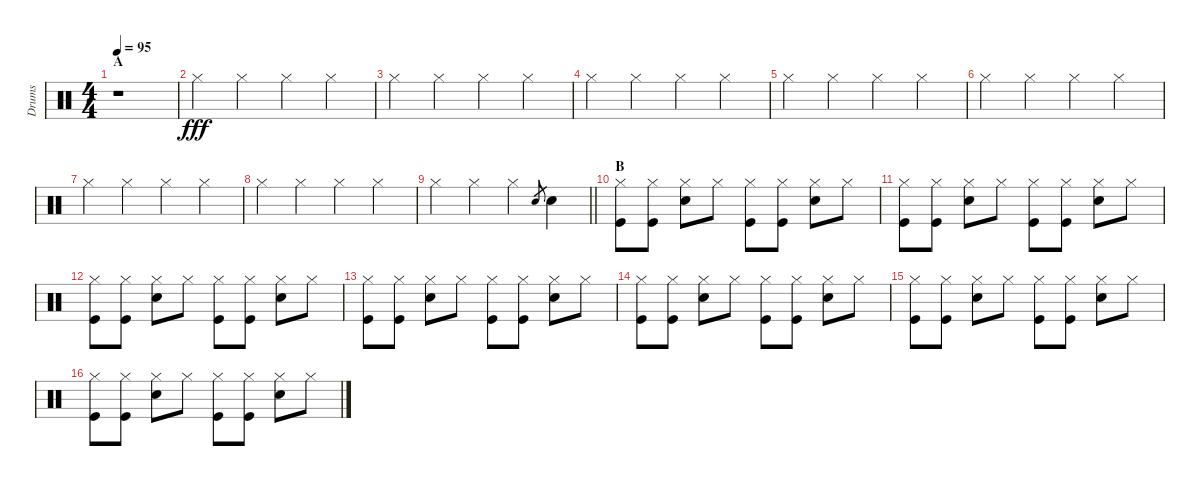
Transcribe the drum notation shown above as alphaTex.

\track ("Drums" "Drums") {instrument percussion}
\staff {score}
\articulation defaults
\ts (4 4)
\section ("" "A")
\tempo 95
\tempo 190
\tempo 95
\clef neutral
\ks c
r.1{dy fff} |
"Hi-Hat (closed)".4 "Hi-Hat (closed)".4 "Hi-Hat (closed)".4 "Hi-Hat (closed)".4 |
"Hi-Hat (closed)".4 "Hi-Hat (closed)".4 "Hi-Hat (closed)".4 "Hi-Hat (closed)".4 |
"Hi-Hat (closed)".4 "Hi-Hat (closed)".4 "Hi-Hat (closed)".4 "Hi-Hat (closed)".4 |
"Hi-Hat (closed)".4 "Hi-Hat (closed)".4 "Hi-Hat (closed)".4 "Hi-Hat (closed)".4 |
"Hi-Hat (closed)".4 "Hi-Hat (closed)".4 "Hi-Hat (closed)".4 "Hi-Hat (closed)".4 |
"Hi-Hat (closed)".4 "Hi-Hat (closed)".4 "Hi-Hat (closed)".4 "Hi-Hat (closed)".4 |
"Hi-Hat (closed)".4 "Hi-Hat (closed)".4 "Hi-Hat (closed)".4 "Hi-Hat (closed)".4 |
\barLineRight lightlight "Hi-Hat (closed)".4 "Hi-Hat (closed)".4 "Hi-Hat (closed)".4 "Snare (hit) 2".8{gr} "Snare (hit) 2".4
|
\section ("" "B")
("Hi-Hat (closed)" "Kick (hit)").8 ("Hi-Hat (closed)" "Kick (hit)").8 ("Hi-Hat (closed)" "Snare (hit) 2").8 "Hi-Hat (closed)".8 ("Hi-Hat (closed)" "Kick (hit)").8 ("Hi-Hat (closed)" "Kick (hit)").8 ("Hi-Hat (closed)" "Snare (hit) 2").8 "Hi-Hat (closed)".8 |
("Hi-Hat (closed)" "Kick (hit)").8 ("Hi-Hat (closed)" "Kick (hit)").8 ("Hi-Hat (closed)" "Snare (hit) 2").8 "Hi-Hat (closed)".8 ("Hi-Hat (closed)" "Kick (hit)").8 ("Hi-Hat (closed)" "Kick (hit)").8 ("Hi-Hat (closed)" "Snare (hit) 2").8 "Hi-Hat (closed)".8 |
("Hi-Hat (closed)" "Kick (hit)").8 ("Hi-Hat (closed)" "Kick (hit)").8 ("Hi-Hat (closed)" "Snare (hit) 2").8 "Hi-Hat (closed)".8 ("Hi-Hat (closed)" "Kick (hit)").8 ("Hi-Hat (closed)" "Kick (hit)").8 ("Hi-Hat (closed)" "Snare (hit) 2").8 "Hi-Hat (closed)".8 |
("Hi-Hat (closed)" "Kick (hit)").8 ("Hi-Hat (closed)" "Kick (hit)").8 ("Hi-Hat (closed)" "Snare (hit) 2").8 "Hi-Hat (closed)".8 ("Hi-Hat (closed)" "Kick (hit)").8 ("Hi-Hat (closed)" "Kick (hit)").8 ("Hi-Hat (closed)" "Snare (hit) 2").8 "Hi-Hat (closed)".8 |
("Hi-Hat (closed)" "Kick (hit)").8 ("Hi-Hat (closed)" "Kick (hit)").8 ("Hi-Hat (closed)" "Snare (hit) 2").8 "Hi-Hat (closed)".8 ("Hi-Hat (closed)" "Kick (hit)").8 ("Hi-Hat (closed)" "Kick (hit)").8 ("Hi-Hat (closed)" "Snare (hit) 2").8 "Hi-Hat (closed)".8 |
("Hi-Hat (closed)" "Kick (hit)").8 ("Hi-Hat (closed)" "Kick (hit)").8 ("Hi-Hat (closed)" "Snare (hit) 2").8 "Hi-Hat (closed)".8 ("Hi-Hat (closed)" "Kick (hit)").8 ("Hi-Hat (closed)" "Kick (hit)").8 ("Hi-Hat (closed)" "Snare (hit) 2").8 "Hi-Hat (closed)".8 |
("Hi-Hat (closed)" "Kick (hit)").8 ("Hi-Hat (closed)" "Kick (hit)").8 ("Hi-Hat (closed)" "Snare (hit) 2").8 "Hi-Hat (closed)".8 ("Hi-Hat (closed)" "Kick (hit)").8 ("Hi-Hat (closed)" "Kick (hit)").8 ("Hi-Hat (closed)" "Snare (hit) 2").8 "Hi-Hat (closed)".8
